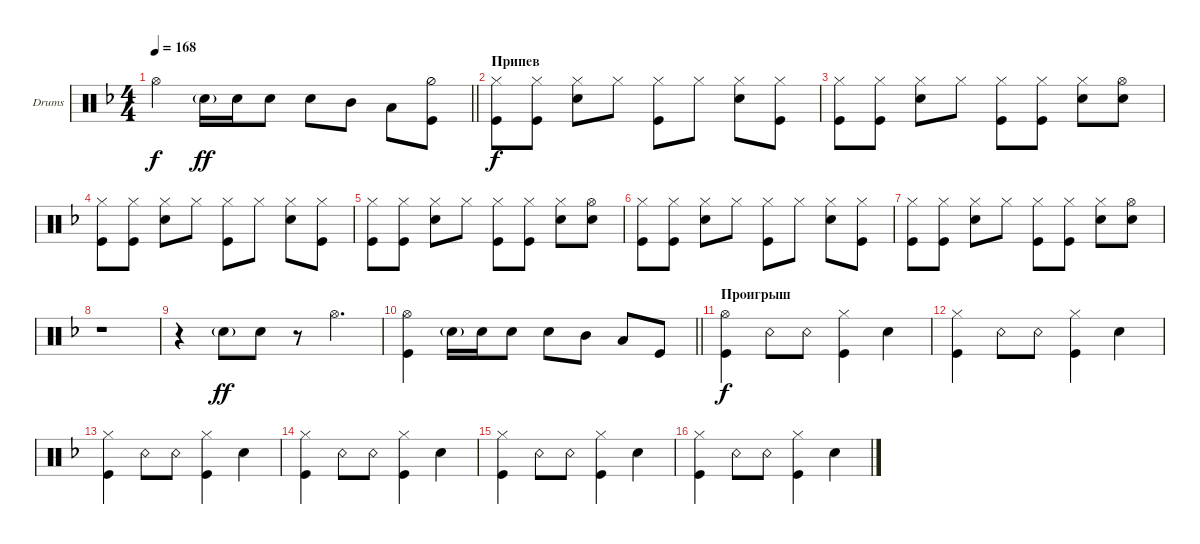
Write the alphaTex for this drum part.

\defaultSystemsLayout 4
\bracketExtendMode groupsimilarinstruments
\firstSystemTrackNameOrientation horizontal
\otherSystemsTrackNameOrientation horizontal
\track ("Drumkit" "Drums") {instrument percussion}
\staff {score}
\articulation defaults
\ts (4 4)
\tempo 168
\clef neutral
\scale
0.333333
\barLineRight lightlight
\ks f "Hi-Hat (open)".4{dy f} "Snare (hit) 2"{g}.16{dy ff} "Snare (hit) 2".16 "Snare (hit) 2".8 "Snare (hit) 2".8 "Mid Tom (hit)".8 "Low Tom (hit)".8
("Kick (hit)" "Hi-Hat (half)").8 |
\section ("" "Припев")
\scale
0.333333 ("Hi-Hat (closed)" "Kick (hit)").8{dy f} ("Hi-Hat (closed)" "Kick (hit)").8 ("Hi-Hat (closed)" "Snare (hit) 2").8 "Hi-Hat (closed)".8 ("Hi-Hat (closed)" "Kick (hit)").8 "Hi-Hat (closed)".8 ("Hi-Hat (closed)" "Snare (hit) 2").8 ("Hi-Hat (closed)" "Kick (hit)").8 |
\scale
0.333333 ("Hi-Hat (closed)" "Kick (hit)").8 ("Hi-Hat (closed)" "Kick (hit)").8 ("Hi-Hat (closed)" "Snare (hit) 2").8 "Hi-Hat (closed)".8 ("Hi-Hat (closed)" "Kick (hit)").8 ("Hi-Hat (closed)" "Kick (hit)").8 ("Hi-Hat (closed)" "Snare (hit) 2").8 ("Hi-Hat (open)" "Snare (hit) 2").8 |
\scale
0.333333 ("Hi-Hat (closed)" "Kick (hit)").8 ("Hi-Hat (closed)" "Kick (hit)").8 ("Hi-Hat (closed)" "Snare (hit) 2").8 "Hi-Hat (closed)".8 ("Hi-Hat (closed)" "Kick (hit)").8 "Hi-Hat (closed)".8 ("Hi-Hat (closed)" "Snare (hit) 2").8 ("Hi-Hat (closed)" "Kick (hit)").8 |
\scale
0.333333 ("Hi-Hat (closed)" "Kick (hit)").8 ("Hi-Hat (closed)" "Kick (hit)").8 ("Hi-Hat (closed)" "Snare (hit) 2").8 "Hi-Hat (closed)".8 ("Hi-Hat (closed)" "Kick (hit)").8 ("Hi-Hat (closed)" "Kick (hit)").8 ("Hi-Hat (closed)" "Snare (hit) 2").8 ("Hi-Hat (open)" "Snare (hit) 2").8 |
\scale
0.333333 ("Hi-Hat (closed)" "Kick (hit)").8 ("Hi-Hat (closed)" "Kick (hit)").8 ("Hi-Hat (closed)" "Snare (hit) 2").8 "Hi-Hat (closed)".8 ("Hi-Hat (closed)" "Kick (hit)").8 "Hi-Hat (closed)".8 ("Hi-Hat (closed)" "Snare (hit) 2").8 ("Hi-Hat (closed)" "Kick (hit)").8 |
\scale
0.333333 ("Hi-Hat (closed)" "Kick (hit)").8 ("Hi-Hat (closed)" "Kick (hit)").8 ("Hi-Hat (closed)" "Snare (hit) 2").8 "Hi-Hat (closed)".8 ("Hi-Hat (closed)" "Kick (hit)").8 ("Hi-Hat (closed)" "Kick (hit)").8 ("Hi-Hat (closed)" "Snare (hit) 2").8 ("Hi-Hat (open)" "Snare (hit) 2").8 |
\scale
0.333333 r.1 |
\scale
0.333333 r.4 "Snare (hit) 2"{g}.8{dy ff} "Snare (hit) 2".8 r.8 "Hi-Hat (open)".4{d} |
\scale
0.333333
\barLineRight lightlight
("Hi-Hat (open)" "Kick (hit)").4 "Snare (hit) 2"{g}.16 "Snare (hit) 2".16 "Snare (hit) 2".8 "Snare (hit) 2".8 "Mid Tom (hit)".8 "Low Tom (hit)".8 "Kick (hit)".8 |
\section ("" "Проигрыш")
\scale
0.333333 ("Kick (hit)" "Hi-Hat (open)").4{dy f} "Snare (rim shot)".8 "Snare (rim shot)".8 ("Kick (hit)" "Hi-Hat (closed)").4 "Snare (hit) 2".4 |
\scale
0.333333 ("Kick (hit)" "Hi-Hat (closed)").4 "Snare (rim shot)".8 "Snare (rim shot)".8 ("Kick (hit)" "Hi-Hat (closed)").4 "Snare (hit) 2".4 |
\scale
0.333333 ("Kick (hit)" "Hi-Hat (closed)").4 "Snare (rim shot)".8 "Snare (rim shot)".8 ("Kick (hit)" "Hi-Hat (closed)").4 "Snare (hit) 2".4 |
\scale
0.333333 ("Kick (hit)" "Hi-Hat (closed)").4 "Snare (rim shot)".8 "Snare (rim shot)".8 ("Kick (hit)" "Hi-Hat (closed)").4 "Snare (hit) 2".4 |
\scale
0.333333 ("Kick (hit)" "Hi-Hat (closed)").4 "Snare (rim shot)".8 "Snare (rim shot)".8 ("Kick (hit)" "Hi-Hat (closed)").4 "Snare (hit) 2".4 |
\scale
0.333333 ("Kick (hit)" "Hi-Hat (closed)").4 "Snare (rim shot)".8 "Snare (rim shot)".8 ("Kick (hit)" "Hi-Hat (closed)").4 "Snare (hit) 2".4
